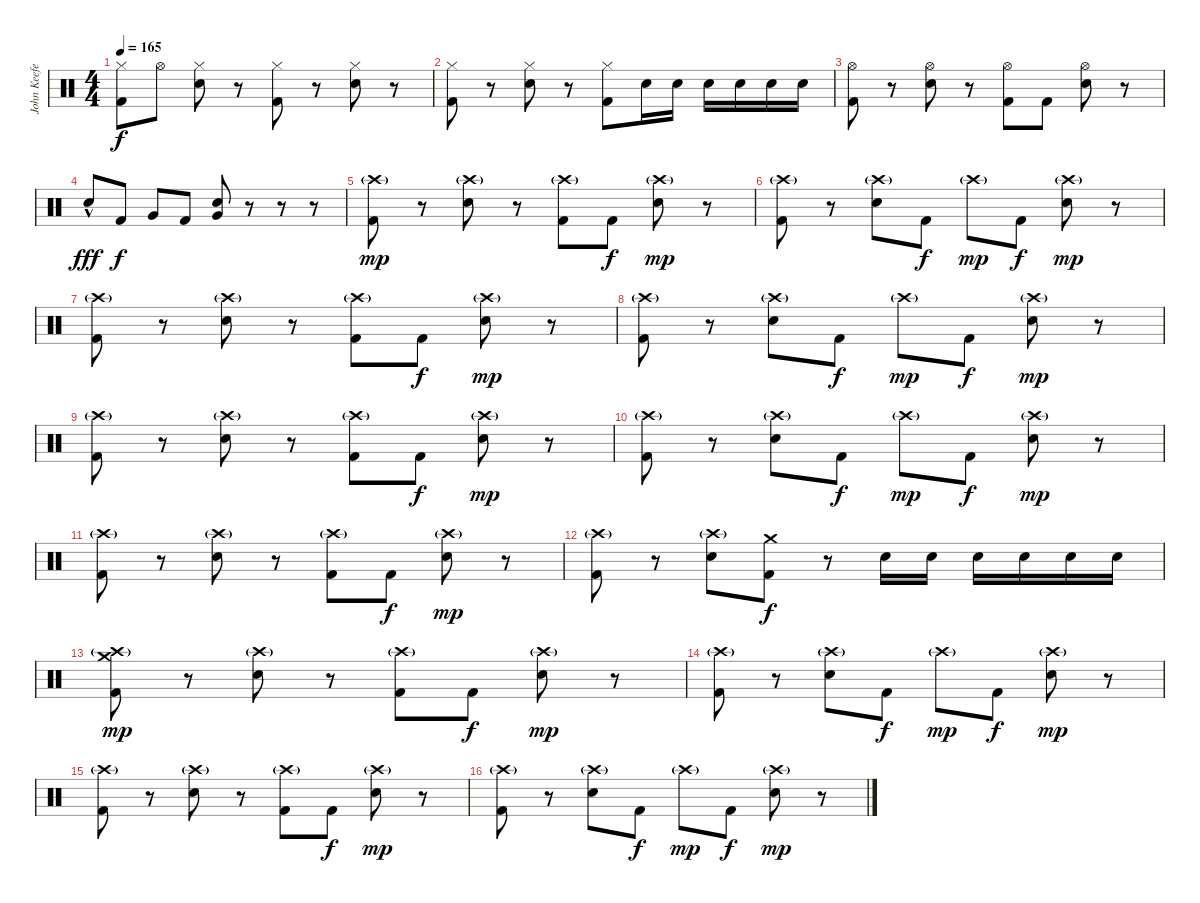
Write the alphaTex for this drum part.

\track ("John Keefe (Drums)" "John Keefe") {instrument percussion}
\staff {score}
\articulation defaults
\ts (4 4)
\tempo 165
\clef neutral
\ks c
("Hi-Hat (closed)" "Kick (hit) 2").8{dy f} "Hi-Hat (open)".8 ("Hi-Hat (closed)" "Electric Snare (hit)").8 r.8 ("Hi-Hat (closed)" "Kick (hit) 2").8 r.8 ("Hi-Hat (closed)" "Electric Snare (hit)").8 r.8 |
("Hi-Hat (closed)" "Kick (hit) 2").8 r.8 ("Hi-Hat (closed)" "Electric Snare (hit)").8 r.8 ("Hi-Hat (closed)" "Kick (hit) 2").8 "Electric Snare (hit)".16 "Electric Snare (hit)".16 "Electric Snare (hit)".16 "Electric Snare (hit)".16 "Electric Snare (hit)".16 "Electric Snare (hit)".16 |
("Hi-Hat (open)" "Kick (hit) 2").8 r.8 ("Hi-Hat (open)" "Electric Snare (hit)").8 r.8 ("Hi-Hat (open)" "Kick (hit) 2").8 "Kick (hit) 2".8 ("Hi-Hat (open)" "Electric Snare (hit)").8 r.8 |
"Electric Snare (hit)"{hac}.8{dy fff} "Kick (hit) 2".8{dy f} "Very Low Tom (hit)".8 "Kick (hit) 2".8 ("Very Low Tom (hit)" "Electric Snare (hit)").8 r.8 r.8 r.8 |
("Crash high (hit)"{g} "Kick (hit) 2").8{dy mp} r.8 ("Crash high (hit)"{g} "Electric Snare (hit)").8 r.8 ("Crash high (hit)"{g} "Kick (hit) 2").8 "Kick (hit) 2".8{dy f} ("Crash high (hit)"{g} "Electric Snare (hit)").8{dy mp} r.8 |
("Crash high (hit)"{g} "Kick (hit) 2").8 r.8 ("Crash high (hit)"{g} "Electric Snare (hit)").8 "Kick (hit) 2".8{dy f} "Crash high (hit)"{g}.8{dy mp} "Kick (hit) 2".8{dy f} ("Crash high (hit)"{g} "Electric Snare (hit)").8{dy mp} r.8 |
("Crash high (hit)"{g} "Kick (hit) 2").8 r.8 ("Crash high (hit)"{g} "Electric Snare (hit)").8 r.8 ("Crash high (hit)"{g} "Kick (hit) 2").8 "Kick (hit) 2".8{dy f} ("Crash high (hit)"{g} "Electric Snare (hit)").8{dy mp} r.8 |
("Crash high (hit)"{g} "Kick (hit) 2").8 r.8 ("Crash high (hit)"{g} "Electric Snare (hit)").8 "Kick (hit) 2".8{dy f} "Crash high (hit)"{g}.8{dy mp} "Kick (hit) 2".8{dy f} ("Crash high (hit)"{g} "Electric Snare (hit)").8{dy mp} r.8 |
("Crash high (hit)"{g} "Kick (hit) 2").8 r.8 ("Crash high (hit)"{g} "Electric Snare (hit)").8 r.8 ("Crash high (hit)"{g} "Kick (hit) 2").8 "Kick (hit) 2".8{dy f} ("Crash high (hit)"{g} "Electric Snare (hit)").8{dy mp} r.8 |
("Crash high (hit)"{g} "Kick (hit) 2").8 r.8 ("Crash high (hit)"{g} "Electric Snare (hit)").8 "Kick (hit) 2".8{dy f} "Crash high (hit)"{g}.8{dy mp} "Kick (hit) 2".8{dy f} ("Crash high (hit)"{g} "Electric Snare (hit)").8{dy mp} r.8 |
("Crash high (hit)"{g} "Kick (hit) 2").8 r.8 ("Crash high (hit)"{g} "Electric Snare (hit)").8 r.8 ("Crash high (hit)"{g} "Kick (hit) 2").8 "Kick (hit) 2".8{dy f} ("Crash high (hit)"{g} "Electric Snare (hit)").8{dy mp} r.8 |
("Crash high (hit)"{g} "Kick (hit) 2").8 r.8 ("Crash high (hit)"{g} "Electric Snare (hit)").8 ("Crash medium (hit)" "Kick (hit) 2").8{dy f} r.8 "Electric Snare (hit)".16 "Electric Snare (hit)".16 "Electric Snare (hit)".16 "Electric Snare (hit)".16 "Electric Snare (hit)".16 "Electric Snare (hit)".16 |
("Crash high (hit)"{g} "Crash medium (hit)" "Kick (hit) 2").8{dy mp} r.8 ("Crash high (hit)"{g} "Electric Snare (hit)").8 r.8 ("Crash high (hit)"{g} "Kick (hit) 2").8 "Kick (hit) 2".8{dy f} ("Crash high (hit)"{g} "Electric Snare (hit)").8{dy mp} r.8 |
("Crash high (hit)"{g} "Kick (hit) 2").8 r.8 ("Crash high (hit)"{g} "Electric Snare (hit)").8 "Kick (hit) 2".8{dy f} "Crash high (hit)"{g}.8{dy mp} "Kick (hit) 2".8{dy f} ("Crash high (hit)"{g} "Electric Snare (hit)").8{dy mp} r.8 |
("Crash high (hit)"{g} "Kick (hit) 2").8 r.8 ("Crash high (hit)"{g} "Electric Snare (hit)").8 r.8 ("Crash high (hit)"{g} "Kick (hit) 2").8 "Kick (hit) 2".8{dy f} ("Crash high (hit)"{g} "Electric Snare (hit)").8{dy mp} r.8 |
("Crash high (hit)"{g} "Kick (hit) 2").8 r.8 ("Crash high (hit)"{g} "Electric Snare (hit)").8 "Kick (hit) 2".8{dy f} "Crash high (hit)"{g}.8{dy mp} "Kick (hit) 2".8{dy f} ("Crash high (hit)"{g} "Electric Snare (hit)").8{dy mp} r.8
